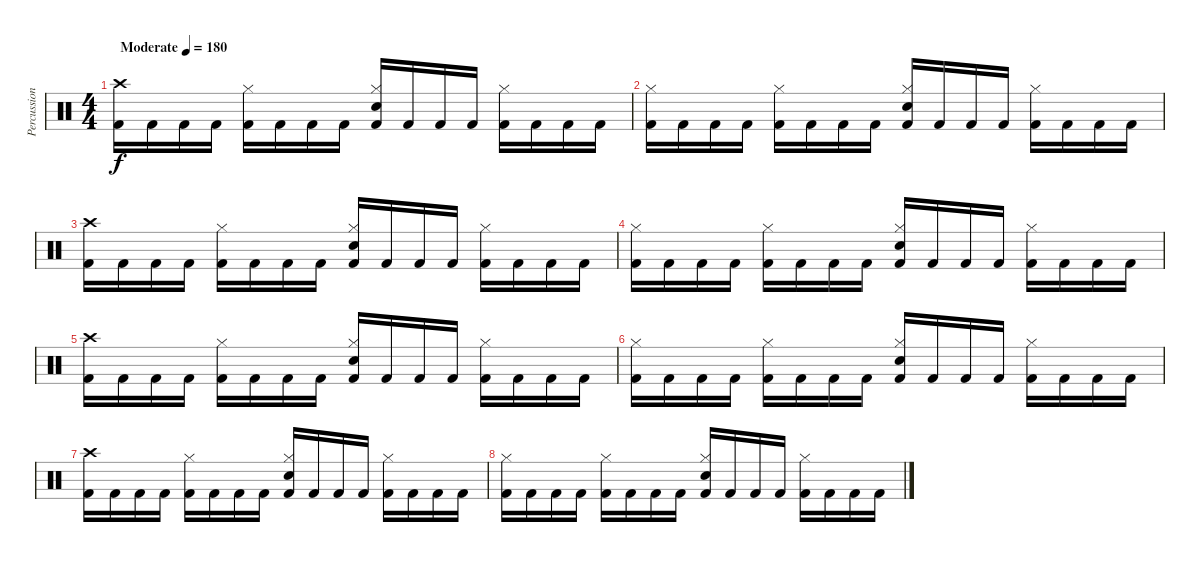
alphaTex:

\track ("Percussion" "Percussion") {instrument percussion}
\staff {score}
\articulation defaults
\ts (4 4)
\tempo (180 "Moderate")
\clef neutral
\ks c
("Crash high (hit)" "Kick (hit) 2").16{dy f} "Kick (hit) 2".16 "Kick (hit) 2".16 "Kick (hit) 2".16 ("Hi-Hat (closed)" "Kick (hit) 2").16 "Kick (hit) 2".16 "Kick (hit) 2".16 "Kick (hit) 2".16 ("Hi-Hat (closed)" "Snare (hit) 2" "Kick (hit) 2").16 "Kick (hit) 2".16 "Kick (hit) 2".16 "Kick (hit) 2".16 ("Hi-Hat (closed)" "Kick (hit) 2").16 "Kick (hit) 2".16 "Kick (hit) 2".16 "Kick (hit) 2".16 |
("Hi-Hat (closed)" "Kick (hit) 2").16 "Kick (hit) 2".16 "Kick (hit) 2".16 "Kick (hit) 2".16 ("Hi-Hat (closed)" "Kick (hit) 2").16 "Kick (hit) 2".16 "Kick (hit) 2".16 "Kick (hit) 2".16 ("Hi-Hat (closed)" "Snare (hit) 2" "Kick (hit) 2").16 "Kick (hit) 2".16 "Kick (hit) 2".16 "Kick (hit) 2".16 ("Hi-Hat (closed)" "Kick (hit) 2").16 "Kick (hit) 2".16 "Kick (hit) 2".16 "Kick (hit) 2".16 |
("Crash high (hit)" "Kick (hit) 2").16 "Kick (hit) 2".16 "Kick (hit) 2".16 "Kick (hit) 2".16 ("Hi-Hat (closed)" "Kick (hit) 2").16 "Kick (hit) 2".16 "Kick (hit) 2".16 "Kick (hit) 2".16 ("Hi-Hat (closed)" "Snare (hit) 2" "Kick (hit) 2").16 "Kick (hit) 2".16 "Kick (hit) 2".16 "Kick (hit) 2".16 ("Hi-Hat (closed)" "Kick (hit) 2").16 "Kick (hit) 2".16 "Kick (hit) 2".16 "Kick (hit) 2".16 |
("Hi-Hat (closed)" "Kick (hit) 2").16 "Kick (hit) 2".16 "Kick (hit) 2".16 "Kick (hit) 2".16 ("Hi-Hat (closed)" "Kick (hit) 2").16 "Kick (hit) 2".16 "Kick (hit) 2".16 "Kick (hit) 2".16 ("Hi-Hat (closed)" "Snare (hit) 2" "Kick (hit) 2").16 "Kick (hit) 2".16 "Kick (hit) 2".16 "Kick (hit) 2".16 ("Hi-Hat (closed)" "Kick (hit) 2").16 "Kick (hit) 2".16 "Kick (hit) 2".16 "Kick (hit) 2".16 |
("Crash high (hit)" "Kick (hit) 2").16 "Kick (hit) 2".16 "Kick (hit) 2".16 "Kick (hit) 2".16 ("Hi-Hat (closed)" "Kick (hit) 2").16 "Kick (hit) 2".16 "Kick (hit) 2".16 "Kick (hit) 2".16 ("Hi-Hat (closed)" "Snare (hit) 2" "Kick (hit) 2").16 "Kick (hit) 2".16 "Kick (hit) 2".16 "Kick (hit) 2".16 ("Hi-Hat (closed)" "Kick (hit) 2").16 "Kick (hit) 2".16 "Kick (hit) 2".16 "Kick (hit) 2".16 |
("Hi-Hat (closed)" "Kick (hit) 2").16 "Kick (hit) 2".16 "Kick (hit) 2".16 "Kick (hit) 2".16 ("Hi-Hat (closed)" "Kick (hit) 2").16 "Kick (hit) 2".16 "Kick (hit) 2".16 "Kick (hit) 2".16 ("Hi-Hat (closed)" "Snare (hit) 2" "Kick (hit) 2").16 "Kick (hit) 2".16 "Kick (hit) 2".16 "Kick (hit) 2".16 ("Hi-Hat (closed)" "Kick (hit) 2").16 "Kick (hit) 2".16 "Kick (hit) 2".16 "Kick (hit) 2".16 |
("Crash high (hit)" "Kick (hit) 2").16 "Kick (hit) 2".16 "Kick (hit) 2".16 "Kick (hit) 2".16 ("Hi-Hat (closed)" "Kick (hit) 2").16 "Kick (hit) 2".16 "Kick (hit) 2".16 "Kick (hit) 2".16 ("Hi-Hat (closed)" "Snare (hit) 2" "Kick (hit) 2").16 "Kick (hit) 2".16 "Kick (hit) 2".16 "Kick (hit) 2".16 ("Hi-Hat (closed)" "Kick (hit) 2").16 "Kick (hit) 2".16 "Kick (hit) 2".16 "Kick (hit) 2".16 |
("Hi-Hat (closed)" "Kick (hit) 2").16 "Kick (hit) 2".16 "Kick (hit) 2".16 "Kick (hit) 2".16 ("Hi-Hat (closed)" "Kick (hit) 2").16 "Kick (hit) 2".16 "Kick (hit) 2".16 "Kick (hit) 2".16 ("Hi-Hat (closed)" "Snare (hit) 2" "Kick (hit) 2").16 "Kick (hit) 2".16 "Kick (hit) 2".16 "Kick (hit) 2".16 ("Hi-Hat (closed)" "Kick (hit) 2").16 "Kick (hit) 2".16 "Kick (hit) 2".16 "Kick (hit) 2".16
